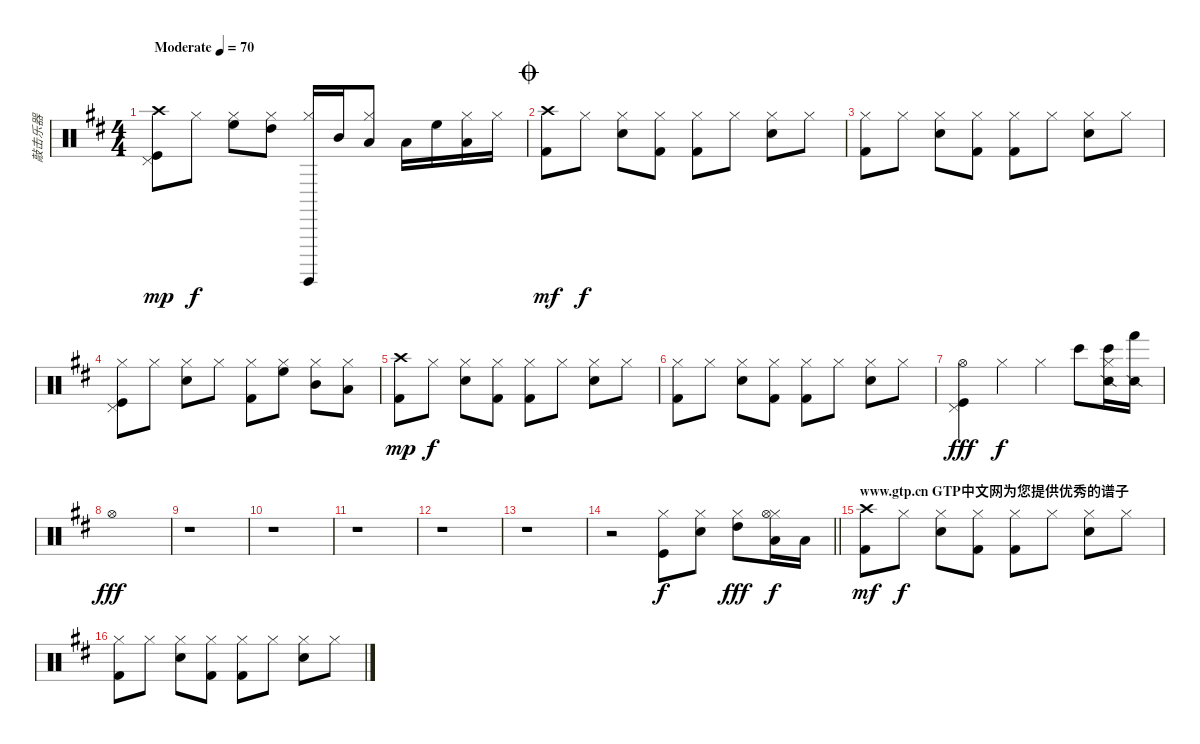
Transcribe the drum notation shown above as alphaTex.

\track ("敲击乐器" "敲击乐器") {instrument percussion}
\staff {score}
\articulation defaults
\ts (4 4)
\tempo (70 "Moderate")
\clef neutral
\ks d
("Crash high (hit)" "Kick (hit)" "Pedal Hi-Hat (hit)").8{dy mp} "Hi-Hat (closed)".8{dy f} ("Hi-Hat (closed)" "High Floor Tom (hit)").8 ("Hi-Hat (closed)" "High Tom (hit)").8 ("Hi-Hat (closed)" "Surdo (hit)").16 "Mid Tom (hit)".16 ("Hi-Hat (closed)" "Low Tom (hit)").8 "Low Floor Tom (hit)".16 "High Floor Tom (hit)".16 ("Low Tom (hit)" "Hi-Hat (closed)").16 "Hi-Hat (closed)".16 |
\jump coda
("Crash high (hit)" "Kick (hit) 2").8{dy mf} "Hi-Hat (closed)".8{dy f} ("Electric Snare (hit)" "Hi-Hat (closed)").8 ("Hi-Hat (closed)" "Kick (hit) 2").8 ("Kick (hit) 2" "Hi-Hat (closed)").8 "Hi-Hat (closed)".8 ("Electric Snare (hit)" "Hi-Hat (closed)").8 "Hi-Hat (closed)".8 |
("Hi-Hat (closed)" "Kick (hit) 2").8 "Hi-Hat (closed)".8 ("Electric Snare (hit)" "Hi-Hat (closed)").8 ("Hi-Hat (closed)" "Kick (hit) 2").8 ("Kick (hit) 2" "Hi-Hat (closed)").8 "Hi-Hat (closed)".8 ("Electric Snare (hit)" "Hi-Hat (closed)").8 "Hi-Hat (closed)".8 |
("Kick (hit)" "Pedal Hi-Hat (hit)" "Hi-Hat (closed)").8 "Hi-Hat (closed)".8 ("Electric Snare (hit)" "Hi-Hat (closed)").8 "Hi-Hat (closed)".8 ("Kick (hit) 2" "Hi-Hat (closed)").8 ("High Floor Tom (hit)" "Hi-Hat (closed)").8 ("Hi-Hat (closed)" "Mid Tom (hit)").8 ("Low Tom (hit)" "Hi-Hat (closed)").8 |
("Crash high (hit)" "Kick (hit) 2").8{dy mp} "Hi-Hat (closed)".8{dy f} ("Electric Snare (hit)" "Hi-Hat (closed)").8 ("Hi-Hat (closed)" "Kick (hit) 2").8 ("Kick (hit) 2" "Hi-Hat (closed)").8 "Hi-Hat (closed)".8 ("Electric Snare (hit)" "Hi-Hat (closed)").8 "Hi-Hat (closed)".8 |
("Hi-Hat (closed)" "Kick (hit) 2").8 "Hi-Hat (closed)".8 ("Electric Snare (hit)" "Hi-Hat (closed)").8 ("Hi-Hat (closed)" "Kick (hit) 2").8 ("Kick (hit) 2" "Hi-Hat (closed)").8 "Hi-Hat (closed)".8 ("Electric Snare (hit)" "Hi-Hat (closed)").8 "Hi-Hat (closed)".8 |
("Kick (hit)" "Pedal Hi-Hat (hit)" "Hi-Hat (open)").4{dy fff} "Hi-Hat (closed)".4{dy f} "Hi-Hat (closed)".4 "Bongo High (hit)".8 ("Hi-Hat (closed)" "Snare (side stick) 2" "Bongo High (hit)").16 ("Snare (side stick) 2" "Hand (hit)").16 |
"Hi-Hat (open)".1{dy fff} |
r.1 |
r.1 |
r.1 |
r.1 |
r.1 |
\barLineRight lightlight
r.2 ("Kick (hit)" "Hi-Hat (closed)").8{dy f} ("Hi-Hat (closed)" "Electric Snare (hit)").8 ("Hi-Hat (closed)" "High Tom (hit)").8{dy fff} ("Hi-Hat (closed)" "Hi-Hat (open)" "Low Tom (hit)").16{dy f} "Low Tom (hit)".16 |
\section ("" "www.gtp.cn GTP中文网为您提供优秀的谱子")
("Crash high (hit)" "Kick (hit) 2").8{dy mf} "Hi-Hat (closed)".8{dy f} ("Electric Snare (hit)" "Hi-Hat (closed)").8 ("Hi-Hat (closed)" "Kick (hit) 2").8 ("Kick (hit) 2" "Hi-Hat (closed)").8 "Hi-Hat (closed)".8 ("Electric Snare (hit)" "Hi-Hat (closed)").8 "Hi-Hat (closed)".8 |
("Hi-Hat (closed)" "Kick (hit) 2").8 "Hi-Hat (closed)".8 ("Electric Snare (hit)" "Hi-Hat (closed)").8 ("Hi-Hat (closed)" "Kick (hit) 2").8 ("Kick (hit) 2" "Hi-Hat (closed)").8 "Hi-Hat (closed)".8 ("Electric Snare (hit)" "Hi-Hat (closed)").8 "Hi-Hat (closed)".8
